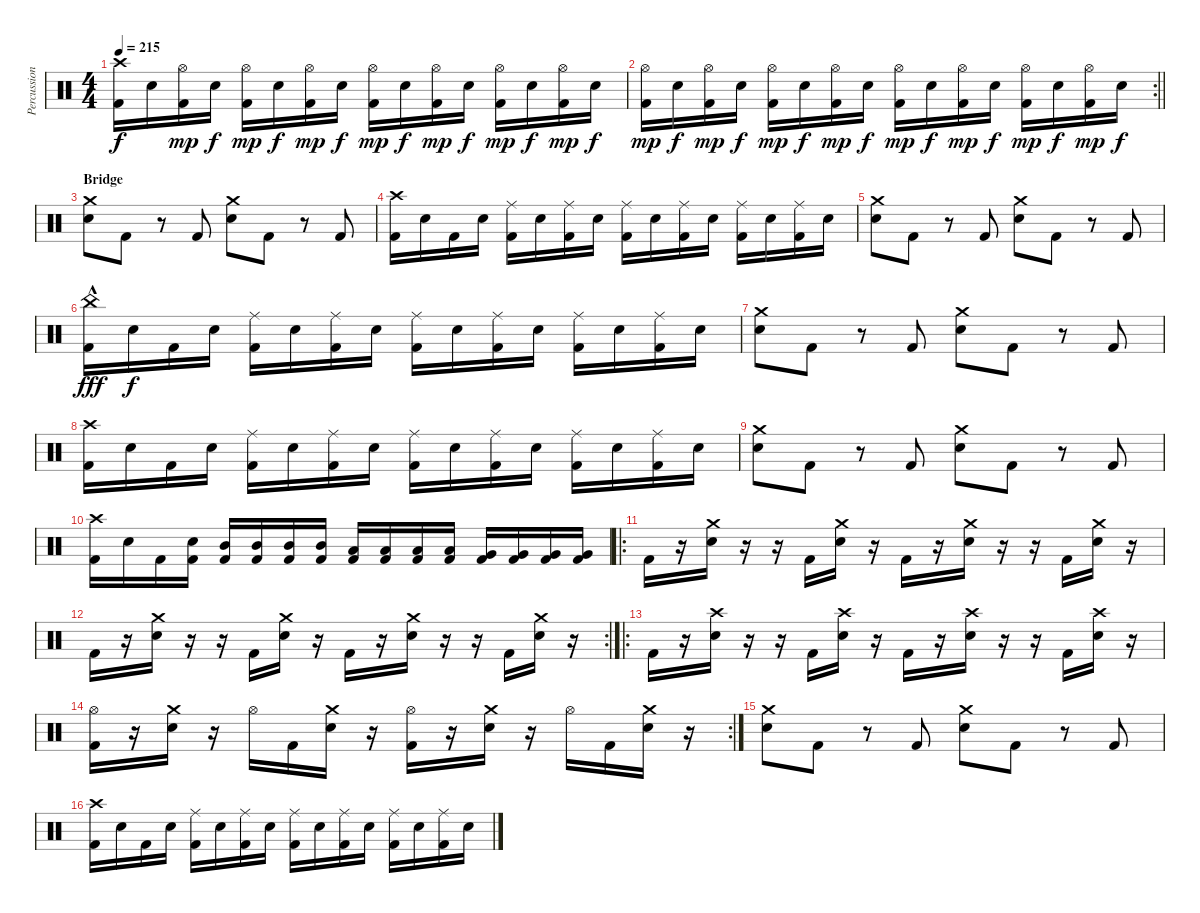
\track ("Percussion" "Percussion") {instrument percussion}
\staff {score}
\articulation defaults
\ts (4 4)
\tempo 215
\clef neutral
\ks c
("Crash high (hit)" "Kick (hit) 2").16{dy f} "Electric Snare (hit)".16 ("Hi-Hat (open)" "Kick (hit) 2").16{dy mp} "Electric Snare (hit)".16{dy f} ("Hi-Hat (open)" "Kick (hit) 2").16{dy mp} "Electric Snare (hit)".16{dy f} ("Hi-Hat (open)" "Kick (hit) 2").16{dy mp} "Electric Snare (hit)".16{dy f} ("Hi-Hat (open)" "Kick (hit) 2").16{dy mp} "Electric Snare (hit)".16{dy f} ("Hi-Hat (open)" "Kick (hit) 2").16{dy mp} "Electric Snare (hit)".16{dy f} ("Hi-Hat (open)" "Kick (hit) 2").16{dy mp} "Electric Snare (hit)".16{dy f} ("Hi-Hat (open)" "Kick (hit) 2").16{dy mp} "Electric Snare (hit)".16{dy f} |
\rc 2
\barLineRight lightlight
("Hi-Hat (open)" "Kick (hit) 2").16{dy mp} "Electric Snare (hit)".16{dy f} ("Hi-Hat (open)" "Kick (hit) 2").16{dy mp} "Electric Snare (hit)".16{dy f} ("Hi-Hat (open)" "Kick (hit) 2").16{dy mp} "Electric Snare (hit)".16{dy f} ("Hi-Hat (open)" "Kick (hit) 2").16{dy mp} "Electric Snare (hit)".16{dy f} ("Hi-Hat (open)" "Kick (hit) 2").16{dy mp} "Electric Snare (hit)".16{dy f} ("Hi-Hat (open)" "Kick (hit) 2").16{dy mp} "Electric Snare (hit)".16{dy f} ("Hi-Hat (open)" "Kick (hit) 2").16{dy mp} "Electric Snare (hit)".16{dy f} ("Hi-Hat (open)" "Kick (hit) 2").16{dy mp} "Electric Snare (hit)".16{dy f} |
\section ("" "Bridge")
("Crash medium (hit)" "Electric Snare (hit)").8 "Kick (hit) 2".8 r.8 "Kick (hit) 2".8 ("Crash medium (hit)" "Electric Snare (hit)").8 "Kick (hit) 2".8 r.8 "Kick (hit) 2".8 |
("Crash high (hit)" "Kick (hit) 2").16 "Electric Snare (hit)".16 "Kick (hit) 2".16 "Electric Snare (hit)".16 ("Ride (middle)" "Kick (hit) 2").16 "Electric Snare (hit)".16 ("Ride (middle)" "Kick (hit) 2").16 "Electric Snare (hit)".16 ("Ride (middle)" "Kick (hit) 2").16 "Electric Snare (hit)".16 ("Ride (middle)" "Kick (hit) 2").16 "Electric Snare (hit)".16 ("Ride (middle)" "Kick (hit) 2").16 "Electric Snare (hit)".16 ("Ride (middle)" "Kick (hit) 2").16 "Electric Snare (hit)".16 |
("Crash medium (hit)" "Electric Snare (hit)").8 "Kick (hit) 2".8 r.8 "Kick (hit) 2".8 ("Crash medium (hit)" "Electric Snare (hit)").8 "Kick (hit) 2".8 r.8 "Kick (hit) 2".8 |
("China (hit)"{hac} "Kick (hit) 2").16{dy fff} "Electric Snare (hit)".16{dy f} "Kick (hit) 2".16 "Electric Snare (hit)".16 ("Ride (middle)" "Kick (hit) 2").16 "Electric Snare (hit)".16 ("Ride (middle)" "Kick (hit) 2").16 "Electric Snare (hit)".16 ("Ride (middle)" "Kick (hit) 2").16 "Electric Snare (hit)".16 ("Ride (middle)" "Kick (hit) 2").16 "Electric Snare (hit)".16 ("Ride (middle)" "Kick (hit) 2").16 "Electric Snare (hit)".16 ("Ride (middle)" "Kick (hit) 2").16 "Electric Snare (hit)".16 |
("Crash medium (hit)" "Electric Snare (hit)").8 "Kick (hit) 2".8 r.8 "Kick (hit) 2".8 ("Crash medium (hit)" "Electric Snare (hit)").8 "Kick (hit) 2".8 r.8 "Kick (hit) 2".8 |
("Crash high (hit)" "Kick (hit) 2").16 "Electric Snare (hit)".16 "Kick (hit) 2".16 "Electric Snare (hit)".16 ("Ride (middle)" "Kick (hit) 2").16 "Electric Snare (hit)".16 ("Ride (middle)" "Kick (hit) 2").16 "Electric Snare (hit)".16 ("Ride (middle)" "Kick (hit) 2").16 "Electric Snare (hit)".16 ("Ride (middle)" "Kick (hit) 2").16 "Electric Snare (hit)".16 ("Ride (middle)" "Kick (hit) 2").16 "Electric Snare (hit)".16 ("Ride (middle)" "Kick (hit) 2").16 "Electric Snare (hit)".16 |
("Crash medium (hit)" "Electric Snare (hit)").8 "Kick (hit) 2".8 r.8 "Kick (hit) 2".8 ("Crash medium (hit)" "Electric Snare (hit)").8 "Kick (hit) 2".8 r.8 "Kick (hit) 2".8 |
("Crash high (hit)" "Kick (hit) 2").16 "Electric Snare (hit)".16 "Kick (hit) 2".16 ("Electric Snare (hit)" "Kick (hit) 2").16 ("Mid Tom (hit)" "Kick (hit) 2").16 ("Mid Tom (hit)" "Kick (hit) 2").16 ("Mid Tom (hit)" "Kick (hit) 2").16 ("Mid Tom (hit)" "Kick (hit) 2").16 ("Low Tom (hit)" "Kick (hit) 2").16 ("Low Tom (hit)" "Kick (hit) 2").16 ("Low Tom (hit)" "Kick (hit) 2").16 ("Low Tom (hit)" "Kick (hit) 2").16 ("Very Low Tom (hit)" "Kick (hit) 2").16 ("Very Low Tom (hit)" "Kick (hit) 2").16 ("Very Low Tom (hit)" "Kick (hit) 2").16 ("Very Low Tom (hit)" "Kick (hit) 2").16 |
\ro "Kick (hit) 2".16
r.16 ("Crash medium (hit)" "Electric Snare (hit)").16 r.16 r.16 "Kick (hit) 2".16 ("Crash medium (hit)" "Electric Snare (hit)").16 r.16 "Kick (hit) 2".16 r.16 ("Crash medium (hit)" "Electric Snare (hit)").16 r.16 r.16 "Kick (hit) 2".16 ("Crash medium (hit)" "Electric Snare (hit)").16 r.16 |
\rc 2 "Kick (hit) 2".16
r.16 ("Crash medium (hit)" "Electric Snare (hit)").16 r.16 r.16 "Kick (hit) 2".16 ("Crash medium (hit)" "Electric Snare (hit)").16 r.16 "Kick (hit) 2".16 r.16 ("Crash medium (hit)" "Electric Snare (hit)").16 r.16 r.16 "Kick (hit) 2".16 ("Crash medium (hit)" "Electric Snare (hit)").16 r.16 |
\ro "Kick (hit) 2".16
r.16 ("Crash high (hit)" "Electric Snare (hit)").16 r.16 r.16 "Kick (hit) 2".16 ("Crash high (hit)" "Electric Snare (hit)").16 r.16 "Kick (hit) 2".16 r.16 ("Crash high (hit)" "Electric Snare (hit)").16 r.16 r.16 "Kick (hit) 2".16 ("Crash high (hit)" "Electric Snare (hit)").16 r.16 |
\rc 2
("Hi-Hat (open)" "Kick (hit) 2").16 r.16 ("Crash medium (hit)" "Electric Snare (hit)").16 r.16 "Hi-Hat (open)".16 "Kick (hit) 2".16 ("Crash medium (hit)" "Electric Snare (hit)").16 r.16 ("Hi-Hat (open)" "Kick (hit) 2").16 r.16 ("Crash medium (hit)" "Electric Snare (hit)").16 r.16 "Hi-Hat (open)".16 "Kick (hit) 2".16 ("Crash medium (hit)" "Electric Snare (hit)").16 r.16 |
("Crash medium (hit)" "Electric Snare (hit)").8 "Kick (hit) 2".8 r.8 "Kick (hit) 2".8 ("Crash medium (hit)" "Electric Snare (hit)").8 "Kick (hit) 2".8 r.8 "Kick (hit) 2".8 |
("Crash high (hit)" "Kick (hit) 2").16 "Electric Snare (hit)".16 "Kick (hit) 2".16 "Electric Snare (hit)".16 ("Ride (middle)" "Kick (hit) 2").16 "Electric Snare (hit)".16 ("Ride (middle)" "Kick (hit) 2").16 "Electric Snare (hit)".16 ("Ride (middle)" "Kick (hit) 2").16 "Electric Snare (hit)".16 ("Ride (middle)" "Kick (hit) 2").16 "Electric Snare (hit)".16 ("Ride (middle)" "Kick (hit) 2").16 "Electric Snare (hit)".16 ("Ride (middle)" "Kick (hit) 2").16 "Electric Snare (hit)".16
